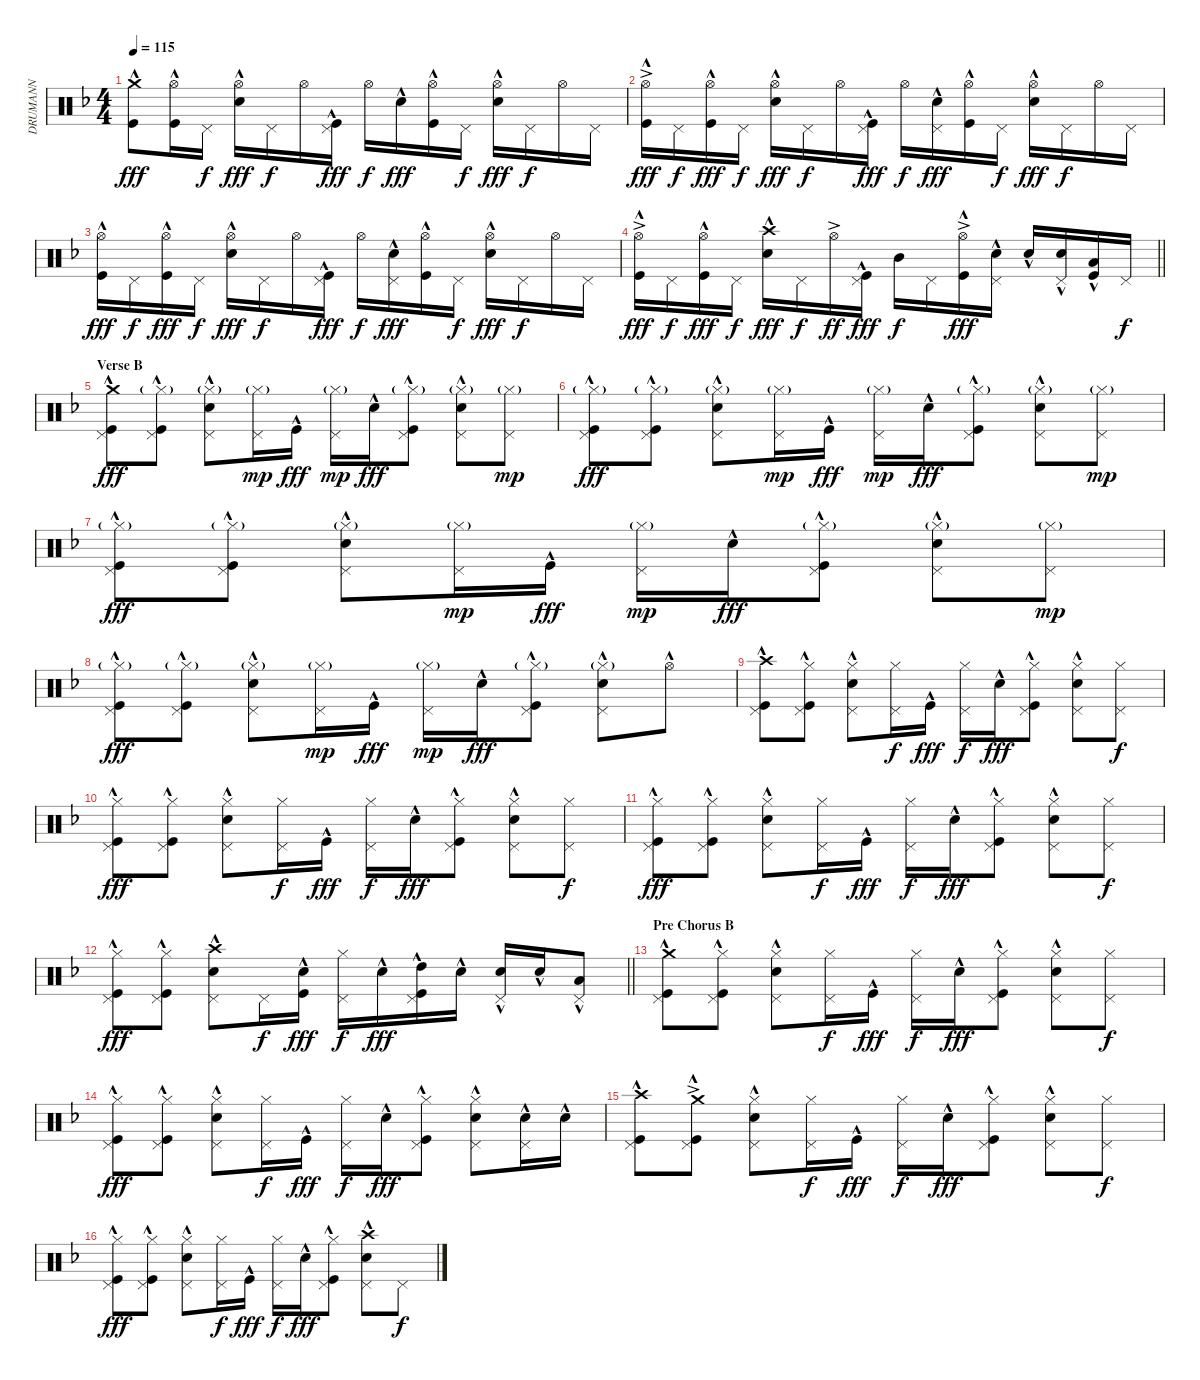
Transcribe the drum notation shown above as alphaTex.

\track ("DRUMANN" "DRUMANN") {instrument percussion}
\staff {score}
\articulation defaults
\ts (4 4)
\tempo 115
\clef neutral
\ks f
("Crash medium (hit)"{hac} "Kick (hit)"{hac}).8{dy fff} ("Hi-Hat (open)" "Kick (hit)"{hac}).16 "Pedal Hi-Hat (hit)".16{dy f} ("Hi-Hat (open)" "Snare (hit) 2"{hac}).16{dy fff} "Pedal Hi-Hat (hit)".16{dy f} "Hi-Hat (open)".16 ("Pedal Hi-Hat (hit)" "Kick (hit)"{hac}).16{dy fff} "Hi-Hat (open)".16{dy f} "Snare (hit) 2"{hac}.16{dy fff} ("Hi-Hat (open)" "Kick (hit)"{hac}).16 "Pedal Hi-Hat (hit)".16{dy f} ("Hi-Hat (open)" "Snare (hit) 2"{hac}).16{dy fff} "Pedal Hi-Hat (hit)".16{dy f} "Hi-Hat (open)".16 "Pedal Hi-Hat (hit)".16 |
("Hi-Hat (open)"{ac} "Kick (hit)"{hac}).16{dy fff} "Pedal Hi-Hat (hit)".16{dy f} ("Hi-Hat (open)" "Kick (hit)"{hac}).16{dy fff} "Pedal Hi-Hat (hit)".16{dy f} ("Hi-Hat (open)" "Snare (hit) 2"{hac}).16{dy fff} "Pedal Hi-Hat (hit)".16{dy f} "Hi-Hat (open)".16 ("Pedal Hi-Hat (hit)" "Kick (hit)"{hac}).16{dy fff} "Hi-Hat (open)".16{dy f} ("Snare (hit) 2"{hac} "Pedal Hi-Hat (hit)").16{dy fff} ("Hi-Hat (open)" "Kick (hit)"{hac}).16 "Pedal Hi-Hat (hit)".16{dy f} ("Hi-Hat (open)" "Snare (hit) 2"{hac}).16{dy fff} "Pedal Hi-Hat (hit)".16{dy f} "Hi-Hat (open)".16 "Pedal Hi-Hat (hit)".16 |
("Hi-Hat (open)" "Kick (hit)"{hac}).16{dy fff} "Pedal Hi-Hat (hit)".16{dy f} ("Hi-Hat (open)" "Kick (hit)"{hac}).16{dy fff} "Pedal Hi-Hat (hit)".16{dy f} ("Hi-Hat (open)" "Snare (hit) 2"{hac}).16{dy fff} "Pedal Hi-Hat (hit)".16{dy f} "Hi-Hat (open)".16 ("Pedal Hi-Hat (hit)" "Kick (hit)"{hac}).16{dy fff} "Hi-Hat (open)".16{dy f} ("Snare (hit) 2"{hac} "Pedal Hi-Hat (hit)").16{dy fff} ("Hi-Hat (open)" "Kick (hit)"{hac}).16 "Pedal Hi-Hat (hit)".16{dy f} ("Hi-Hat (open)" "Snare (hit) 2"{hac}).16{dy fff} "Pedal Hi-Hat (hit)".16{dy f} "Hi-Hat (open)".16 "Pedal Hi-Hat (hit)".16 |
\barLineRight lightlight
("Hi-Hat (open)"{ac} "Kick (hit)"{hac}).16{dy fff} "Pedal Hi-Hat (hit)".16{dy f} ("Hi-Hat (open)" "Kick (hit)"{hac}).16{dy fff} "Pedal Hi-Hat (hit)".16{dy f} ("Crash high (hit)"{hac} "Snare (hit) 2"{hac}).16{dy fff} "Pedal Hi-Hat (hit)".16{dy f} "Hi-Hat (open)"{ac}.16{dy ff} ("Pedal Hi-Hat (hit)" "Kick (hit)"{hac}).16{dy fff} "Mid Tom (hit)".16{dy f} "Pedal Hi-Hat (hit)".16 ("Hi-Hat (open)"{ac} "Kick (hit)"{hac}).16{dy fff} ("Snare (hit) 2"{hac} "Pedal Hi-Hat (hit)").16 "Snare (hit) 2"{hac}.16 ("Snare (hit) 2"{hac} "Pedal Hi-Hat (hit)").16 ("Low Tom (hit)"{hac} "Kick (hit)"{hac}).16 "Pedal Hi-Hat (hit)".16{dy f} |
\section ("" "Verse B")
("Crash medium (hit)"{hac} "Pedal Hi-Hat (hit)" "Kick (hit)"{hac}).8{dy fff} ("Hi-Hat (closed)"{g} "Pedal Hi-Hat (hit)" "Kick (hit)"{hac}).8 ("Hi-Hat (closed)"{g} "Snare (hit) 2"{hac} "Pedal Hi-Hat (hit)").8 ("Hi-Hat (closed)"{g} "Pedal Hi-Hat (hit)").16{dy mp} "Kick (hit)"{hac}.16{dy fff} ("Hi-Hat (closed)"{g} "Pedal Hi-Hat (hit)").16{dy mp} "Snare (hit) 2"{hac}.16{dy fff} ("Hi-Hat (closed)"{g} "Pedal Hi-Hat (hit)" "Kick (hit)"{hac}).8 ("Hi-Hat (closed)"{g} "Snare (hit) 2"{hac} "Pedal Hi-Hat (hit)").8 ("Hi-Hat (closed)"{g} "Pedal Hi-Hat (hit)").8{dy mp} |
("Hi-Hat (closed)"{g} "Pedal Hi-Hat (hit)" "Kick (hit)"{hac}).8{dy fff} ("Hi-Hat (closed)"{g} "Pedal Hi-Hat (hit)" "Kick (hit)"{hac}).8 ("Hi-Hat (closed)"{g} "Snare (hit) 2"{hac} "Pedal Hi-Hat (hit)").8 ("Hi-Hat (closed)"{g} "Pedal Hi-Hat (hit)").16{dy mp} "Kick (hit)"{hac}.16{dy fff} ("Hi-Hat (closed)"{g} "Pedal Hi-Hat (hit)").16{dy mp} "Snare (hit) 2"{hac}.16{dy fff} ("Hi-Hat (closed)"{g} "Pedal Hi-Hat (hit)" "Kick (hit)"{hac}).8 ("Hi-Hat (closed)"{g} "Snare (hit) 2"{hac} "Pedal Hi-Hat (hit)").8 ("Hi-Hat (closed)"{g} "Pedal Hi-Hat (hit)").8{dy mp} |
("Hi-Hat (closed)"{g} "Pedal Hi-Hat (hit)" "Kick (hit)"{hac}).8{dy fff} ("Hi-Hat (closed)"{g} "Pedal Hi-Hat (hit)" "Kick (hit)"{hac}).8 ("Hi-Hat (closed)"{g} "Snare (hit) 2"{hac} "Pedal Hi-Hat (hit)").8 ("Hi-Hat (closed)"{g} "Pedal Hi-Hat (hit)").16{dy mp} "Kick (hit)"{hac}.16{dy fff} ("Hi-Hat (closed)"{g} "Pedal Hi-Hat (hit)").16{dy mp} "Snare (hit) 2"{hac}.16{dy fff} ("Hi-Hat (closed)"{g} "Pedal Hi-Hat (hit)" "Kick (hit)"{hac}).8 ("Hi-Hat (closed)"{g} "Snare (hit) 2"{hac} "Pedal Hi-Hat (hit)").8 ("Hi-Hat (closed)"{g} "Pedal Hi-Hat (hit)").8{dy mp} |
("Hi-Hat (closed)"{g} "Pedal Hi-Hat (hit)" "Kick (hit)"{hac}).8{dy fff} ("Hi-Hat (closed)"{g} "Pedal Hi-Hat (hit)" "Kick (hit)"{hac}).8 ("Hi-Hat (closed)"{g} "Snare (hit) 2"{hac} "Pedal Hi-Hat (hit)").8 ("Hi-Hat (closed)"{g} "Pedal Hi-Hat (hit)").16{dy mp} "Kick (hit)"{hac}.16{dy fff} ("Hi-Hat (closed)"{g} "Pedal Hi-Hat (hit)").16{dy mp} "Snare (hit) 2"{hac}.16{dy fff} ("Hi-Hat (closed)"{g} "Pedal Hi-Hat (hit)" "Kick (hit)"{hac}).8 ("Hi-Hat (closed)"{g} "Snare (hit) 2"{hac} "Pedal Hi-Hat (hit)").8 "Hi-Hat (open)"{hac}.8 |
("Crash high (hit)"{hac} "Pedal Hi-Hat (hit)" "Kick (hit)"{hac}).8 ("Hi-Hat (closed)" "Pedal Hi-Hat (hit)" "Kick (hit)"{hac}).8 ("Hi-Hat (closed)" "Snare (hit) 2"{hac} "Pedal Hi-Hat (hit)").8 ("Hi-Hat (closed)" "Pedal Hi-Hat (hit)").16{dy f} "Kick (hit)"{hac}.16{dy fff} ("Hi-Hat (closed)" "Pedal Hi-Hat (hit)").16{dy f} "Snare (hit) 2"{hac}.16{dy fff} ("Hi-Hat (closed)" "Pedal Hi-Hat (hit)" "Kick (hit)"{hac}).8 ("Hi-Hat (closed)" "Snare (hit) 2"{hac} "Pedal Hi-Hat (hit)").8 ("Hi-Hat (closed)" "Pedal Hi-Hat (hit)").8{dy f} |
("Hi-Hat (closed)" "Pedal Hi-Hat (hit)" "Kick (hit)"{hac}).8{dy fff} ("Hi-Hat (closed)" "Pedal Hi-Hat (hit)" "Kick (hit)"{hac}).8 ("Hi-Hat (closed)" "Snare (hit) 2"{hac} "Pedal Hi-Hat (hit)").8 ("Hi-Hat (closed)" "Pedal Hi-Hat (hit)").16{dy f} "Kick (hit)"{hac}.16{dy fff} ("Hi-Hat (closed)" "Pedal Hi-Hat (hit)").16{dy f} "Snare (hit) 2"{hac}.16{dy fff} ("Hi-Hat (closed)" "Pedal Hi-Hat (hit)" "Kick (hit)"{hac}).8 ("Hi-Hat (closed)" "Snare (hit) 2"{hac} "Pedal Hi-Hat (hit)").8 ("Hi-Hat (closed)" "Pedal Hi-Hat (hit)").8{dy f} |
("Hi-Hat (closed)" "Pedal Hi-Hat (hit)" "Kick (hit)"{hac}).8{dy fff} ("Hi-Hat (closed)" "Pedal Hi-Hat (hit)" "Kick (hit)"{hac}).8 ("Hi-Hat (closed)" "Snare (hit) 2"{hac} "Pedal Hi-Hat (hit)").8 ("Hi-Hat (closed)" "Pedal Hi-Hat (hit)").16{dy f} "Kick (hit)"{hac}.16{dy fff} ("Hi-Hat (closed)" "Pedal Hi-Hat (hit)").16{dy f} "Snare (hit) 2"{hac}.16{dy fff} ("Hi-Hat (closed)" "Pedal Hi-Hat (hit)" "Kick (hit)"{hac}).8 ("Hi-Hat (closed)" "Snare (hit) 2"{hac} "Pedal Hi-Hat (hit)").8 ("Hi-Hat (closed)" "Pedal Hi-Hat (hit)").8{dy f} |
\barLineRight lightlight
("Hi-Hat (closed)" "Pedal Hi-Hat (hit)" "Kick (hit)"{hac}).8{dy fff} ("Hi-Hat (closed)" "Pedal Hi-Hat (hit)" "Kick (hit)"{hac}).8 ("Crash high (hit)"{hac} "Snare (hit) 2"{hac} "Pedal Hi-Hat (hit)").8 "Pedal Hi-Hat (hit)".16{dy f} ("Snare (hit) 2"{hac} "Kick (hit)"{hac}).16{dy fff} ("Hi-Hat (closed)" "Pedal Hi-Hat (hit)").16{dy f} "Snare (hit) 2"{hac}.16{dy fff} ("High Tom (hit)" "Pedal Hi-Hat (hit)" "Kick (hit)"{hac}).16 "Snare (hit) 2"{hac}.16 ("Snare (hit) 2"{hac} "Pedal Hi-Hat (hit)").16 "Snare (hit) 2"{hac}.16 ("Low Tom (hit)"{hac} "Pedal Hi-Hat (hit)").8 |
\section ("" "Pre Chorus B")
("Crash medium (hit)"{hac} "Pedal Hi-Hat (hit)" "Kick (hit)"{hac}).8 ("Hi-Hat (closed)" "Pedal Hi-Hat (hit)" "Kick (hit)"{hac}).8 ("Hi-Hat (closed)" "Snare (hit) 2"{hac} "Pedal Hi-Hat (hit)").8 ("Hi-Hat (closed)" "Pedal Hi-Hat (hit)").16{dy f} "Kick (hit)"{hac}.16{dy fff} ("Hi-Hat (closed)" "Pedal Hi-Hat (hit)").16{dy f} "Snare (hit) 2"{hac}.16{dy fff} ("Hi-Hat (closed)" "Pedal Hi-Hat (hit)" "Kick (hit)"{hac}).8 ("Hi-Hat (closed)" "Snare (hit) 2"{hac} "Pedal Hi-Hat (hit)").8 ("Hi-Hat (closed)" "Pedal Hi-Hat (hit)").8{dy f} |
("Hi-Hat (closed)" "Pedal Hi-Hat (hit)" "Kick (hit)"{hac}).8{dy fff} ("Hi-Hat (closed)" "Pedal Hi-Hat (hit)" "Kick (hit)"{hac}).8 ("Hi-Hat (closed)" "Snare (hit) 2"{hac} "Pedal Hi-Hat (hit)").8 ("Hi-Hat (closed)" "Pedal Hi-Hat (hit)").16{dy f} "Kick (hit)"{hac}.16{dy fff} ("Hi-Hat (closed)" "Pedal Hi-Hat (hit)").16{dy f} "Snare (hit) 2"{hac}.16{dy fff} ("Hi-Hat (closed)" "Pedal Hi-Hat (hit)" "Kick (hit)"{hac}).8 ("Hi-Hat (closed)" "Snare (hit) 2"{hac} "Pedal Hi-Hat (hit)").8 ("Snare (hit) 2"{hac} "Pedal Hi-Hat (hit)").16 "Snare (hit) 2"{hac}.16 |
("Crash high (hit)"{hac} "Pedal Hi-Hat (hit)" "Kick (hit)"{hac}).8 ("Crash medium (hit)"{ac} "Pedal Hi-Hat (hit)" "Kick (hit)"{hac}).8 ("Hi-Hat (closed)" "Snare (hit) 2"{hac} "Pedal Hi-Hat (hit)").8 ("Hi-Hat (closed)" "Pedal Hi-Hat (hit)").16{dy f} "Kick (hit)"{hac}.16{dy fff} ("Hi-Hat (closed)" "Pedal Hi-Hat (hit)").16{dy f} "Snare (hit) 2"{hac}.16{dy fff} ("Hi-Hat (closed)" "Pedal Hi-Hat (hit)" "Kick (hit)"{hac}).8 ("Hi-Hat (closed)" "Snare (hit) 2"{hac} "Pedal Hi-Hat (hit)").8 ("Hi-Hat (closed)" "Pedal Hi-Hat (hit)").8{dy f} |
("Hi-Hat (closed)" "Pedal Hi-Hat (hit)" "Kick (hit)"{hac}).8{dy fff} ("Hi-Hat (closed)" "Pedal Hi-Hat (hit)" "Kick (hit)"{hac}).8 ("Hi-Hat (closed)" "Snare (hit) 2"{hac} "Pedal Hi-Hat (hit)").8 ("Hi-Hat (closed)" "Pedal Hi-Hat (hit)").16{dy f} "Kick (hit)"{hac}.16{dy fff} ("Hi-Hat (closed)" "Pedal Hi-Hat (hit)").16{dy f} "Snare (hit) 2"{hac}.16{dy fff} ("Hi-Hat (closed)" "Pedal Hi-Hat (hit)" "Kick (hit)"{hac}).8 ("Crash high (hit)"{hac} "Snare (hit) 2"{hac} "Pedal Hi-Hat (hit)").8 "Pedal Hi-Hat (hit)".8{dy f}
